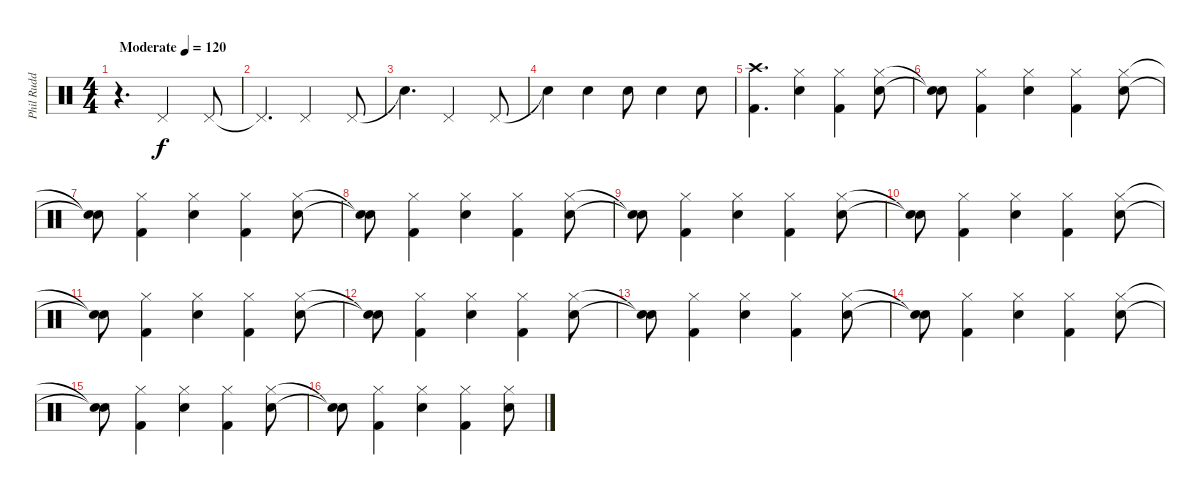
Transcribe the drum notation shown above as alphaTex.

\track ("Phil Rudd - Drums" "Phil Rudd ") {instrument percussion}
\staff {score}
\articulation defaults
\ts (4 4)
\tempo (120 "Moderate")
\clef neutral
\ks c
r.4{d dy f} "Pedal Hi-Hat (hit)".2 "Pedal Hi-Hat (hit)".8 |
"Pedal Hi-Hat (hit)"{t}.4{d} "Pedal Hi-Hat (hit)".2 "Pedal Hi-Hat (hit)".8 |
"Snare (hit)"{t}.4{d} "Pedal Hi-Hat (hit)".2 "Pedal Hi-Hat (hit)".8 |
"Snare (hit)"{t}.4 "Snare (hit) 2".4 "Snare (hit) 2".8 "Snare (hit) 2".4 "Snare (hit) 2".8 |
("Crash high (hit)" "Kick (hit) 2").4{d} ("Hi-Hat (closed)" "Snare (hit) 2").4 ("Hi-Hat (closed)" "Kick (hit) 2").4 ("Hi-Hat (closed)" "Snare (hit) 2").8 |
("Snare (hit)"{t} "Snare (hit)"{t}).8 ("Hi-Hat (closed)" "Kick (hit) 2").4 ("Hi-Hat (closed)" "Snare (hit) 2").4 ("Hi-Hat (closed)" "Kick (hit) 2").4 ("Hi-Hat (closed)" "Snare (hit) 2").8 |
("Snare (hit)"{t} "Snare (hit)"{t}).8 ("Hi-Hat (closed)" "Kick (hit) 2").4 ("Hi-Hat (closed)" "Snare (hit) 2").4 ("Hi-Hat (closed)" "Kick (hit) 2").4 ("Hi-Hat (closed)" "Snare (hit) 2").8 |
("Snare (hit)"{t} "Snare (hit)"{t}).8 ("Hi-Hat (closed)" "Kick (hit) 2").4 ("Hi-Hat (closed)" "Snare (hit) 2").4 ("Hi-Hat (closed)" "Kick (hit) 2").4 ("Hi-Hat (closed)" "Snare (hit) 2").8 |
("Snare (hit)"{t} "Snare (hit)"{t}).8 ("Hi-Hat (closed)" "Kick (hit) 2").4 ("Hi-Hat (closed)" "Snare (hit) 2").4 ("Hi-Hat (closed)" "Kick (hit) 2").4 ("Hi-Hat (closed)" "Snare (hit) 2").8 |
("Snare (hit)"{t} "Snare (hit)"{t}).8 ("Hi-Hat (closed)" "Kick (hit) 2").4 ("Hi-Hat (closed)" "Snare (hit) 2").4 ("Hi-Hat (closed)" "Kick (hit) 2").4 ("Hi-Hat (closed)" "Snare (hit) 2").8 |
("Snare (hit)"{t} "Snare (hit)"{t}).8 ("Hi-Hat (closed)" "Kick (hit) 2").4 ("Hi-Hat (closed)" "Snare (hit) 2").4 ("Hi-Hat (closed)" "Kick (hit) 2").4 ("Hi-Hat (closed)" "Snare (hit) 2").8 |
("Snare (hit)"{t} "Snare (hit)"{t}).8 ("Hi-Hat (closed)" "Kick (hit) 2").4 ("Hi-Hat (closed)" "Snare (hit) 2").4 ("Hi-Hat (closed)" "Kick (hit) 2").4 ("Hi-Hat (closed)" "Snare (hit) 2").8 |
("Snare (hit)"{t} "Snare (hit)"{t}).8 ("Hi-Hat (closed)" "Kick (hit) 2").4 ("Hi-Hat (closed)" "Snare (hit) 2").4 ("Hi-Hat (closed)" "Kick (hit) 2").4 ("Hi-Hat (closed)" "Snare (hit) 2").8 |
("Snare (hit)"{t} "Snare (hit)"{t}).8 ("Hi-Hat (closed)" "Kick (hit) 2").4 ("Hi-Hat (closed)" "Snare (hit) 2").4 ("Hi-Hat (closed)" "Kick (hit) 2").4 ("Hi-Hat (closed)" "Snare (hit) 2").8 |
("Snare (hit)"{t} "Snare (hit)"{t}).8 ("Hi-Hat (closed)" "Kick (hit) 2").4 ("Hi-Hat (closed)" "Snare (hit) 2").4 ("Hi-Hat (closed)" "Kick (hit) 2").4 ("Hi-Hat (closed)" "Snare (hit) 2").8 |
("Snare (hit)"{t} "Snare (hit)"{t}).8 ("Hi-Hat (closed)" "Kick (hit) 2").4 ("Hi-Hat (closed)" "Snare (hit) 2").4 ("Hi-Hat (closed)" "Kick (hit) 2").4 ("Hi-Hat (closed)" "Snare (hit) 2").8
